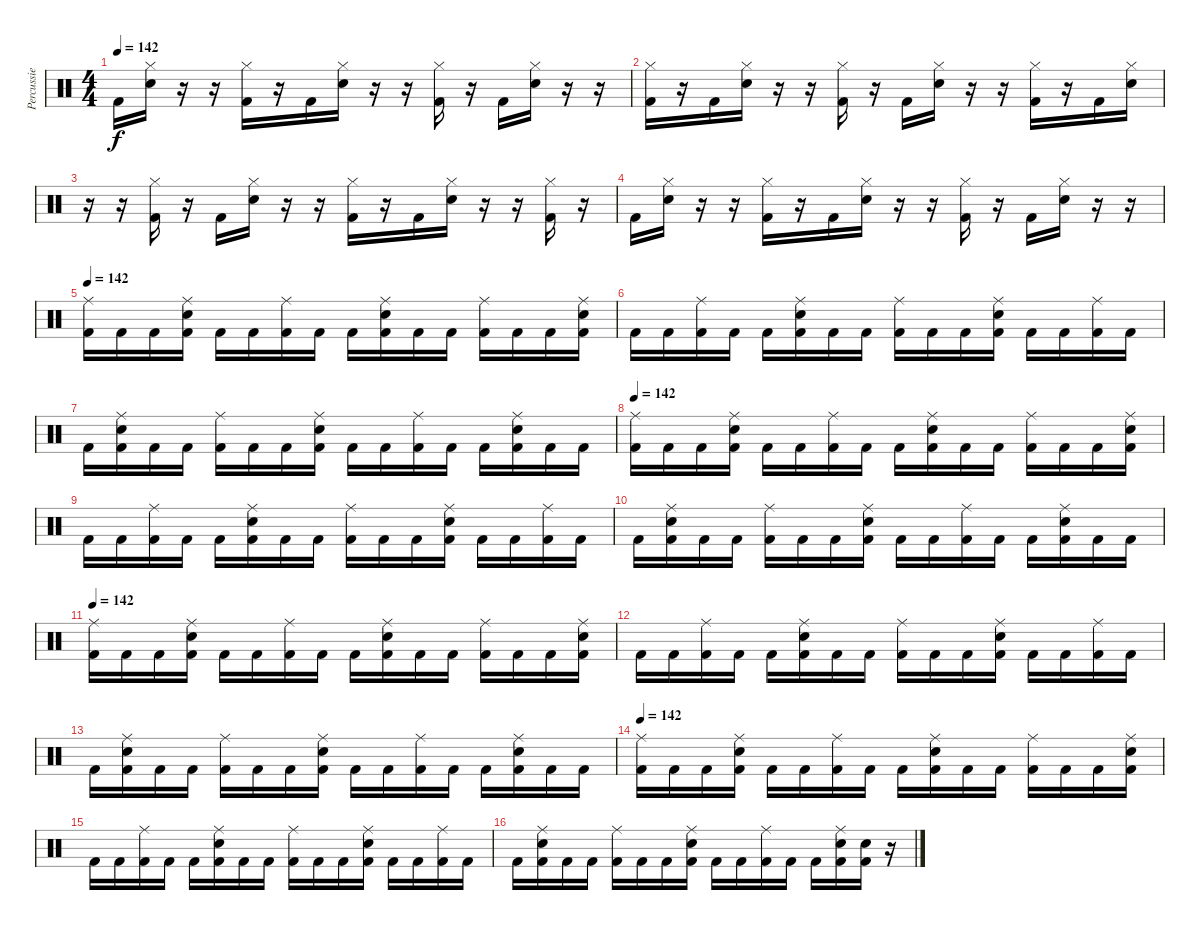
\track ("Percussie" "Percussie") {instrument percussion}
\staff {score}
\articulation defaults
\ts (4 4)
\tempo 142
\clef neutral
\ks c "Kick (hit) 2".16{dy f}
("Hi-Hat (closed)" "Snare (hit) 2").16 r.16 r.16 ("Hi-Hat (closed)" "Kick (hit) 2").16 r.16 "Kick (hit) 2".16 ("Hi-Hat (closed)" "Snare (hit) 2").16 r.16 r.16 ("Hi-Hat (closed)" "Kick (hit) 2").16 r.16 "Kick (hit) 2".16 ("Hi-Hat (closed)" "Snare (hit) 2").16 r.16 r.16 |
("Hi-Hat (closed)" "Kick (hit) 2").16 r.16 "Kick (hit) 2".16 ("Hi-Hat (closed)" "Snare (hit) 2").16 r.16 r.16 ("Hi-Hat (closed)" "Kick (hit) 2").16 r.16 "Kick (hit) 2".16 ("Hi-Hat (closed)" "Snare (hit) 2").16 r.16 r.16 ("Hi-Hat (closed)" "Kick (hit) 2").16 r.16 "Kick (hit) 2".16 ("Hi-Hat (closed)" "Snare (hit) 2").16 |
r.16 r.16 ("Hi-Hat (closed)" "Kick (hit) 2").16 r.16 "Kick (hit) 2".16 ("Hi-Hat (closed)" "Snare (hit) 2").16 r.16 r.16 ("Hi-Hat (closed)" "Kick (hit) 2").16 r.16 "Kick (hit) 2".16 ("Hi-Hat (closed)" "Snare (hit) 2").16 r.16 r.16 ("Hi-Hat (closed)" "Kick (hit) 2").16 r.16 |
"Kick (hit) 2".16 ("Hi-Hat (closed)" "Snare (hit) 2").16 r.16 r.16 ("Hi-Hat (closed)" "Kick (hit) 2").16 r.16 "Kick (hit) 2".16 ("Hi-Hat (closed)" "Snare (hit) 2").16 r.16 r.16 ("Hi-Hat (closed)" "Kick (hit) 2").16 r.16 "Kick (hit) 2".16 ("Hi-Hat (closed)" "Snare (hit) 2").16 r.16 r.16 |
\tempo 142
("Ride (middle)" "Kick (hit) 2").16 "Kick (hit) 2".16 "Kick (hit) 2".16 ("Ride (middle)" "Snare (hit) 2" "Kick (hit) 2").16 "Kick (hit) 2".16 "Kick (hit) 2".16 ("Ride (middle)" "Kick (hit) 2").16 "Kick (hit) 2".16 "Kick (hit) 2".16 ("Ride (middle)" "Snare (hit) 2" "Kick (hit) 2").16 "Kick (hit) 2".16 "Kick (hit) 2".16 ("Ride (middle)" "Kick (hit) 2").16 "Kick (hit) 2".16 "Kick (hit) 2".16 ("Ride (middle)" "Snare (hit) 2" "Kick (hit) 2").16 |
"Kick (hit) 2".16 "Kick (hit) 2".16 ("Ride (middle)" "Kick (hit) 2").16 "Kick (hit) 2".16 "Kick (hit) 2".16 ("Ride (middle)" "Snare (hit) 2" "Kick (hit) 2").16 "Kick (hit) 2".16 "Kick (hit) 2".16 ("Ride (middle)" "Kick (hit) 2").16 "Kick (hit) 2".16 "Kick (hit) 2".16 ("Ride (middle)" "Snare (hit) 2" "Kick (hit) 2").16 "Kick (hit) 2".16 "Kick (hit) 2".16 ("Ride (middle)" "Kick (hit) 2").16 "Kick (hit) 2".16 |
"Kick (hit) 2".16 ("Ride (middle)" "Snare (hit) 2" "Kick (hit) 2").16 "Kick (hit) 2".16 "Kick (hit) 2".16 ("Ride (middle)" "Kick (hit) 2").16 "Kick (hit) 2".16 "Kick (hit) 2".16 ("Ride (middle)" "Snare (hit) 2" "Kick (hit) 2").16 "Kick (hit) 2".16 "Kick (hit) 2".16 ("Ride (middle)" "Kick (hit) 2").16 "Kick (hit) 2".16 "Kick (hit) 2".16 ("Ride (middle)" "Snare (hit) 2" "Kick (hit) 2").16 "Kick (hit) 2".16 "Kick (hit) 2".16 |
\tempo 142
("Ride (middle)" "Kick (hit) 2").16 "Kick (hit) 2".16 "Kick (hit) 2".16 ("Ride (middle)" "Snare (hit) 2" "Kick (hit) 2").16 "Kick (hit) 2".16 "Kick (hit) 2".16 ("Ride (middle)" "Kick (hit) 2").16 "Kick (hit) 2".16 "Kick (hit) 2".16 ("Ride (middle)" "Snare (hit) 2" "Kick (hit) 2").16 "Kick (hit) 2".16 "Kick (hit) 2".16 ("Ride (middle)" "Kick (hit) 2").16 "Kick (hit) 2".16 "Kick (hit) 2".16 ("Ride (middle)" "Snare (hit) 2" "Kick (hit) 2").16 |
"Kick (hit) 2".16 "Kick (hit) 2".16 ("Ride (middle)" "Kick (hit) 2").16 "Kick (hit) 2".16 "Kick (hit) 2".16 ("Ride (middle)" "Snare (hit) 2" "Kick (hit) 2").16 "Kick (hit) 2".16 "Kick (hit) 2".16 ("Ride (middle)" "Kick (hit) 2").16 "Kick (hit) 2".16 "Kick (hit) 2".16 ("Ride (middle)" "Snare (hit) 2" "Kick (hit) 2").16 "Kick (hit) 2".16 "Kick (hit) 2".16 ("Ride (middle)" "Kick (hit) 2").16 "Kick (hit) 2".16 |
"Kick (hit) 2".16 ("Ride (middle)" "Snare (hit) 2" "Kick (hit) 2").16 "Kick (hit) 2".16 "Kick (hit) 2".16 ("Ride (middle)" "Kick (hit) 2").16 "Kick (hit) 2".16 "Kick (hit) 2".16 ("Ride (middle)" "Snare (hit) 2" "Kick (hit) 2").16 "Kick (hit) 2".16 "Kick (hit) 2".16 ("Ride (middle)" "Kick (hit) 2").16 "Kick (hit) 2".16 "Kick (hit) 2".16 ("Ride (middle)" "Snare (hit) 2" "Kick (hit) 2").16 "Kick (hit) 2".16 "Kick (hit) 2".16 |
\tempo 142
("Ride (middle)" "Kick (hit) 2").16 "Kick (hit) 2".16 "Kick (hit) 2".16 ("Ride (middle)" "Snare (hit) 2" "Kick (hit) 2").16 "Kick (hit) 2".16 "Kick (hit) 2".16 ("Ride (middle)" "Kick (hit) 2").16 "Kick (hit) 2".16 "Kick (hit) 2".16 ("Ride (middle)" "Snare (hit) 2" "Kick (hit) 2").16 "Kick (hit) 2".16 "Kick (hit) 2".16 ("Ride (middle)" "Kick (hit) 2").16 "Kick (hit) 2".16 "Kick (hit) 2".16 ("Ride (middle)" "Snare (hit) 2" "Kick (hit) 2").16 |
"Kick (hit) 2".16 "Kick (hit) 2".16 ("Ride (middle)" "Kick (hit) 2").16 "Kick (hit) 2".16 "Kick (hit) 2".16 ("Ride (middle)" "Snare (hit) 2" "Kick (hit) 2").16 "Kick (hit) 2".16 "Kick (hit) 2".16 ("Ride (middle)" "Kick (hit) 2").16 "Kick (hit) 2".16 "Kick (hit) 2".16 ("Ride (middle)" "Snare (hit) 2" "Kick (hit) 2").16 "Kick (hit) 2".16 "Kick (hit) 2".16 ("Ride (middle)" "Kick (hit) 2").16 "Kick (hit) 2".16 |
"Kick (hit) 2".16 ("Ride (middle)" "Snare (hit) 2" "Kick (hit) 2").16 "Kick (hit) 2".16 "Kick (hit) 2".16 ("Ride (middle)" "Kick (hit) 2").16 "Kick (hit) 2".16 "Kick (hit) 2".16 ("Ride (middle)" "Snare (hit) 2" "Kick (hit) 2").16 "Kick (hit) 2".16 "Kick (hit) 2".16 ("Ride (middle)" "Kick (hit) 2").16 "Kick (hit) 2".16 "Kick (hit) 2".16 ("Ride (middle)" "Snare (hit) 2" "Kick (hit) 2").16 "Kick (hit) 2".16 "Kick (hit) 2".16 |
\tempo 142
("Ride (middle)" "Kick (hit) 2").16 "Kick (hit) 2".16 "Kick (hit) 2".16 ("Ride (middle)" "Snare (hit) 2" "Kick (hit) 2").16 "Kick (hit) 2".16 "Kick (hit) 2".16 ("Ride (middle)" "Kick (hit) 2").16 "Kick (hit) 2".16 "Kick (hit) 2".16 ("Ride (middle)" "Snare (hit) 2" "Kick (hit) 2").16 "Kick (hit) 2".16 "Kick (hit) 2".16 ("Ride (middle)" "Kick (hit) 2").16 "Kick (hit) 2".16 "Kick (hit) 2".16 ("Ride (middle)" "Snare (hit) 2" "Kick (hit) 2").16 |
"Kick (hit) 2".16 "Kick (hit) 2".16 ("Ride (middle)" "Kick (hit) 2").16 "Kick (hit) 2".16 "Kick (hit) 2".16 ("Ride (middle)" "Snare (hit) 2" "Kick (hit) 2").16 "Kick (hit) 2".16 "Kick (hit) 2".16 ("Ride (middle)" "Kick (hit) 2").16 "Kick (hit) 2".16 "Kick (hit) 2".16 ("Ride (middle)" "Snare (hit) 2" "Kick (hit) 2").16 "Kick (hit) 2".16 "Kick (hit) 2".16 ("Ride (middle)" "Kick (hit) 2").16 "Kick (hit) 2".16 |
"Kick (hit) 2".16 ("Ride (middle)" "Snare (hit) 2" "Kick (hit) 2").16 "Kick (hit) 2".16 "Kick (hit) 2".16 ("Ride (middle)" "Kick (hit) 2").16 "Kick (hit) 2".16 "Kick (hit) 2".16 ("Ride (middle)" "Snare (hit) 2" "Kick (hit) 2").16 "Kick (hit) 2".16 "Kick (hit) 2".16 ("Ride (middle)" "Kick (hit) 2").16 "Kick (hit) 2".16 "Kick (hit) 2".16 ("Ride (middle)" "Snare (hit) 2" "Kick (hit) 2").16 ("Snare (hit) 2" "Kick (hit) 2").16 r.16
